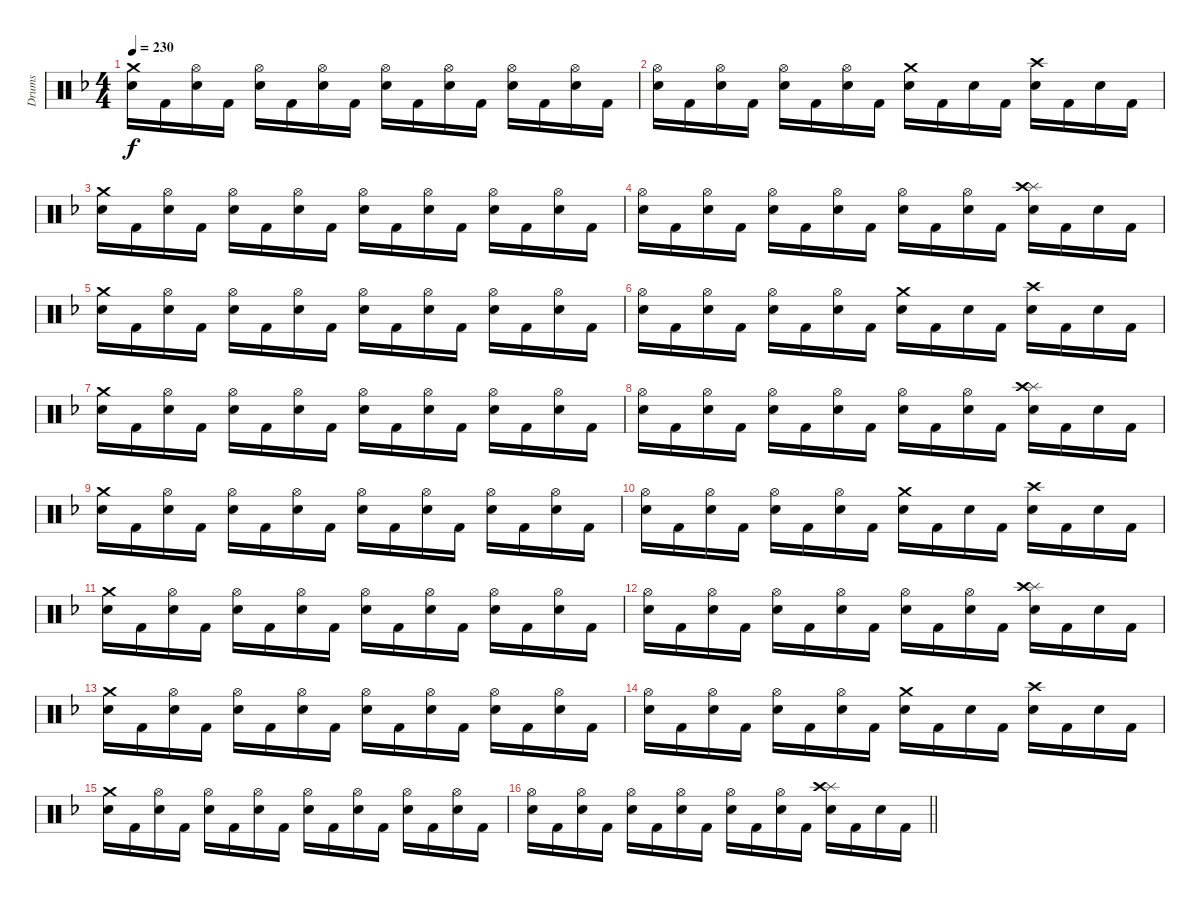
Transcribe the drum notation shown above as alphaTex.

\track ("Drums" "Drums") {instrument percussion}
\staff {score}
\articulation defaults
\ts (4 4)
\tempo 230
\clef neutral
\ks f
("Crash medium (hit)" "Snare (hit) 2").16{dy f} "Kick (hit) 2".16 ("Hi-Hat (open)" "Snare (hit) 2").16 "Kick (hit) 2".16 ("Hi-Hat (open)" "Snare (hit) 2").16 "Kick (hit) 2".16 ("Hi-Hat (open)" "Snare (hit) 2").16 "Kick (hit) 2".16 ("Hi-Hat (open)" "Snare (hit) 2").16 "Kick (hit) 2".16 ("Hi-Hat (open)" "Snare (hit) 2").16 "Kick (hit) 2".16 ("Hi-Hat (open)" "Snare (hit) 2").16 "Kick (hit) 2".16 ("Hi-Hat (open)" "Snare (hit) 2").16 "Kick (hit) 2".16 |
("Hi-Hat (open)" "Snare (hit) 2").16 "Kick (hit) 2".16 ("Hi-Hat (open)" "Snare (hit) 2").16 "Kick (hit) 2".16 ("Hi-Hat (open)" "Snare (hit) 2").16 "Kick (hit) 2".16 ("Hi-Hat (open)" "Snare (hit) 2").16 "Kick (hit) 2".16 ("Crash medium (hit)" "Snare (hit) 2").16 "Kick (hit) 2".16 "Snare (hit) 2".16 "Kick (hit) 2".16 ("Crash high (hit)" "Snare (hit) 2").16 "Kick (hit) 2".16 "Snare (hit) 2".16 "Kick (hit) 2".16 |
("Crash medium (hit)" "Snare (hit) 2").16 "Kick (hit) 2".16 ("Hi-Hat (open)" "Snare (hit) 2").16 "Kick (hit) 2".16 ("Hi-Hat (open)" "Snare (hit) 2").16 "Kick (hit) 2".16 ("Hi-Hat (open)" "Snare (hit) 2").16 "Kick (hit) 2".16 ("Hi-Hat (open)" "Snare (hit) 2").16 "Kick (hit) 2".16 ("Hi-Hat (open)" "Snare (hit) 2").16 "Kick (hit) 2".16 ("Hi-Hat (open)" "Snare (hit) 2").16 "Kick (hit) 2".16 ("Hi-Hat (open)" "Snare (hit) 2").16 "Kick (hit) 2".16 |
("Hi-Hat (open)" "Snare (hit) 2").16 "Kick (hit) 2".16 ("Hi-Hat (open)" "Snare (hit) 2").16 "Kick (hit) 2".16 ("Hi-Hat (open)" "Snare (hit) 2").16 "Kick (hit) 2".16 ("Hi-Hat (open)" "Snare (hit) 2").16 "Kick (hit) 2".16 ("Hi-Hat (open)" "Snare (hit) 2").16 "Kick (hit) 2".16 ("Hi-Hat (open)" "Snare (hit) 2").16 "Kick (hit) 2".16 ("Splash (hit)" "Crash high (hit)" "Snare (hit) 2").16 "Kick (hit) 2".16 "Snare (hit) 2".16 "Kick (hit) 2".16 |
("Crash medium (hit)" "Snare (hit) 2").16 "Kick (hit) 2".16 ("Hi-Hat (open)" "Snare (hit) 2").16 "Kick (hit) 2".16 ("Hi-Hat (open)" "Snare (hit) 2").16 "Kick (hit) 2".16 ("Hi-Hat (open)" "Snare (hit) 2").16 "Kick (hit) 2".16 ("Hi-Hat (open)" "Snare (hit) 2").16 "Kick (hit) 2".16 ("Hi-Hat (open)" "Snare (hit) 2").16 "Kick (hit) 2".16 ("Hi-Hat (open)" "Snare (hit) 2").16 "Kick (hit) 2".16 ("Hi-Hat (open)" "Snare (hit) 2").16 "Kick (hit) 2".16 |
("Hi-Hat (open)" "Snare (hit) 2").16 "Kick (hit) 2".16 ("Hi-Hat (open)" "Snare (hit) 2").16 "Kick (hit) 2".16 ("Hi-Hat (open)" "Snare (hit) 2").16 "Kick (hit) 2".16 ("Hi-Hat (open)" "Snare (hit) 2").16 "Kick (hit) 2".16 ("Crash medium (hit)" "Snare (hit) 2").16 "Kick (hit) 2".16 "Snare (hit) 2".16 "Kick (hit) 2".16 ("Crash high (hit)" "Snare (hit) 2").16 "Kick (hit) 2".16 "Snare (hit) 2".16 "Kick (hit) 2".16 |
("Crash medium (hit)" "Snare (hit) 2").16 "Kick (hit) 2".16 ("Hi-Hat (open)" "Snare (hit) 2").16 "Kick (hit) 2".16 ("Hi-Hat (open)" "Snare (hit) 2").16 "Kick (hit) 2".16 ("Hi-Hat (open)" "Snare (hit) 2").16 "Kick (hit) 2".16 ("Hi-Hat (open)" "Snare (hit) 2").16 "Kick (hit) 2".16 ("Hi-Hat (open)" "Snare (hit) 2").16 "Kick (hit) 2".16 ("Hi-Hat (open)" "Snare (hit) 2").16 "Kick (hit) 2".16 ("Hi-Hat (open)" "Snare (hit) 2").16 "Kick (hit) 2".16 |
("Hi-Hat (open)" "Snare (hit) 2").16 "Kick (hit) 2".16 ("Hi-Hat (open)" "Snare (hit) 2").16 "Kick (hit) 2".16 ("Hi-Hat (open)" "Snare (hit) 2").16 "Kick (hit) 2".16 ("Hi-Hat (open)" "Snare (hit) 2").16 "Kick (hit) 2".16 ("Hi-Hat (open)" "Snare (hit) 2").16 "Kick (hit) 2".16 ("Hi-Hat (open)" "Snare (hit) 2").16 "Kick (hit) 2".16 ("Splash (hit)" "Crash high (hit)" "Snare (hit) 2").16 "Kick (hit) 2".16 "Snare (hit) 2".16 "Kick (hit) 2".16 |
("Crash medium (hit)" "Snare (hit) 2").16 "Kick (hit) 2".16 ("Hi-Hat (open)" "Snare (hit) 2").16 "Kick (hit) 2".16 ("Hi-Hat (open)" "Snare (hit) 2").16 "Kick (hit) 2".16 ("Hi-Hat (open)" "Snare (hit) 2").16 "Kick (hit) 2".16 ("Hi-Hat (open)" "Snare (hit) 2").16 "Kick (hit) 2".16 ("Hi-Hat (open)" "Snare (hit) 2").16 "Kick (hit) 2".16 ("Hi-Hat (open)" "Snare (hit) 2").16 "Kick (hit) 2".16 ("Hi-Hat (open)" "Snare (hit) 2").16 "Kick (hit) 2".16 |
("Hi-Hat (open)" "Snare (hit) 2").16 "Kick (hit) 2".16 ("Hi-Hat (open)" "Snare (hit) 2").16 "Kick (hit) 2".16 ("Hi-Hat (open)" "Snare (hit) 2").16 "Kick (hit) 2".16 ("Hi-Hat (open)" "Snare (hit) 2").16 "Kick (hit) 2".16 ("Crash medium (hit)" "Snare (hit) 2").16 "Kick (hit) 2".16 "Snare (hit) 2".16 "Kick (hit) 2".16 ("Crash high (hit)" "Snare (hit) 2").16 "Kick (hit) 2".16 "Snare (hit) 2".16 "Kick (hit) 2".16 |
("Crash medium (hit)" "Snare (hit) 2").16 "Kick (hit) 2".16 ("Hi-Hat (open)" "Snare (hit) 2").16 "Kick (hit) 2".16 ("Hi-Hat (open)" "Snare (hit) 2").16 "Kick (hit) 2".16 ("Hi-Hat (open)" "Snare (hit) 2").16 "Kick (hit) 2".16 ("Hi-Hat (open)" "Snare (hit) 2").16 "Kick (hit) 2".16 ("Hi-Hat (open)" "Snare (hit) 2").16 "Kick (hit) 2".16 ("Hi-Hat (open)" "Snare (hit) 2").16 "Kick (hit) 2".16 ("Hi-Hat (open)" "Snare (hit) 2").16 "Kick (hit) 2".16 |
("Hi-Hat (open)" "Snare (hit) 2").16 "Kick (hit) 2".16 ("Hi-Hat (open)" "Snare (hit) 2").16 "Kick (hit) 2".16 ("Hi-Hat (open)" "Snare (hit) 2").16 "Kick (hit) 2".16 ("Hi-Hat (open)" "Snare (hit) 2").16 "Kick (hit) 2".16 ("Hi-Hat (open)" "Snare (hit) 2").16 "Kick (hit) 2".16 ("Hi-Hat (open)" "Snare (hit) 2").16 "Kick (hit) 2".16 ("Splash (hit)" "Crash high (hit)" "Snare (hit) 2").16 "Kick (hit) 2".16 "Snare (hit) 2".16 "Kick (hit) 2".16 |
("Crash medium (hit)" "Snare (hit) 2").16 "Kick (hit) 2".16 ("Hi-Hat (open)" "Snare (hit) 2").16 "Kick (hit) 2".16 ("Hi-Hat (open)" "Snare (hit) 2").16 "Kick (hit) 2".16 ("Hi-Hat (open)" "Snare (hit) 2").16 "Kick (hit) 2".16 ("Hi-Hat (open)" "Snare (hit) 2").16 "Kick (hit) 2".16 ("Hi-Hat (open)" "Snare (hit) 2").16 "Kick (hit) 2".16 ("Hi-Hat (open)" "Snare (hit) 2").16 "Kick (hit) 2".16 ("Hi-Hat (open)" "Snare (hit) 2").16 "Kick (hit) 2".16 |
("Hi-Hat (open)" "Snare (hit) 2").16 "Kick (hit) 2".16 ("Hi-Hat (open)" "Snare (hit) 2").16 "Kick (hit) 2".16 ("Hi-Hat (open)" "Snare (hit) 2").16 "Kick (hit) 2".16 ("Hi-Hat (open)" "Snare (hit) 2").16 "Kick (hit) 2".16 ("Crash medium (hit)" "Snare (hit) 2").16 "Kick (hit) 2".16 "Snare (hit) 2".16 "Kick (hit) 2".16 ("Crash high (hit)" "Snare (hit) 2").16 "Kick (hit) 2".16 "Snare (hit) 2".16 "Kick (hit) 2".16 |
("Crash medium (hit)" "Snare (hit) 2").16 "Kick (hit) 2".16 ("Hi-Hat (open)" "Snare (hit) 2").16 "Kick (hit) 2".16 ("Hi-Hat (open)" "Snare (hit) 2").16 "Kick (hit) 2".16 ("Hi-Hat (open)" "Snare (hit) 2").16 "Kick (hit) 2".16 ("Hi-Hat (open)" "Snare (hit) 2").16 "Kick (hit) 2".16 ("Hi-Hat (open)" "Snare (hit) 2").16 "Kick (hit) 2".16 ("Hi-Hat (open)" "Snare (hit) 2").16 "Kick (hit) 2".16 ("Hi-Hat (open)" "Snare (hit) 2").16 "Kick (hit) 2".16 |
\barLineRight lightlight
("Hi-Hat (open)" "Snare (hit) 2").16 "Kick (hit) 2".16 ("Hi-Hat (open)" "Snare (hit) 2").16 "Kick (hit) 2".16 ("Hi-Hat (open)" "Snare (hit) 2").16 "Kick (hit) 2".16 ("Hi-Hat (open)" "Snare (hit) 2").16 "Kick (hit) 2".16 ("Hi-Hat (open)" "Snare (hit) 2").16 "Kick (hit) 2".16 ("Hi-Hat (open)" "Snare (hit) 2").16 "Kick (hit) 2".16 ("Splash (hit)" "Crash high (hit)" "Snare (hit) 2").16 "Kick (hit) 2".16 "Snare (hit) 2".16 "Kick (hit) 2".16
